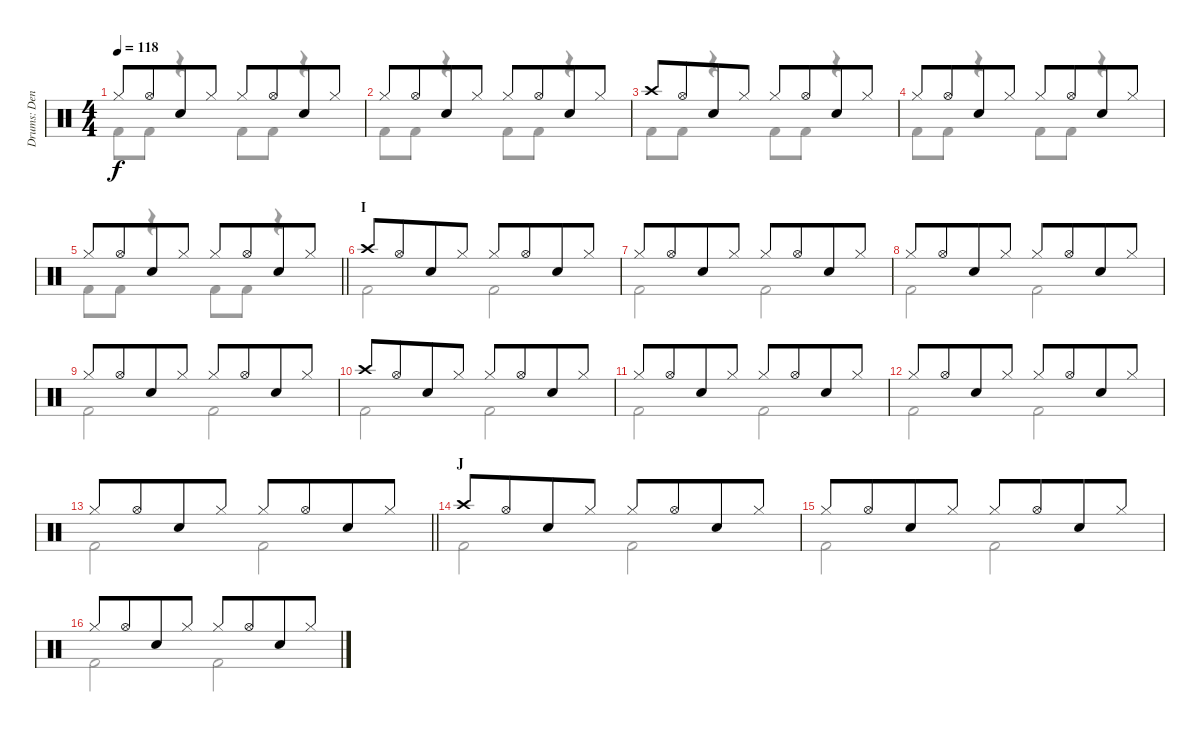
\track ("Drums: Denny" "Drums: Den") {instrument percussion}
\staff {score}
\articulation defaults
\voice
\ts (4 4)
\tempo 118
\clef neutral
\ks c "Hi-Hat (closed)".8{dy f} "Hi-Hat (open)".8{beam merge} "Snare (hit) 2".8 "Hi-Hat (closed)".8 "Hi-Hat (closed)".8 "Hi-Hat (open)".8{beam merge} "Snare (hit) 2".8 "Hi-Hat (closed)".8
|
"Hi-Hat (closed)".8 "Hi-Hat (open)".8{beam merge} "Snare (hit) 2".8 "Hi-Hat (closed)".8 "Hi-Hat (closed)".8 "Hi-Hat (open)".8{beam merge} "Snare (hit) 2".8 "Hi-Hat (closed)".8 |
"Crash high (hit)".8 "Hi-Hat (open)".8{beam merge} "Snare (hit) 2".8 "Hi-Hat (closed)".8 "Hi-Hat (closed)".8 "Hi-Hat (open)".8{beam merge} "Snare (hit) 2".8 "Hi-Hat (closed)".8 |
"Hi-Hat (closed)".8 "Hi-Hat (open)".8{beam merge} "Snare (hit) 2".8 "Hi-Hat (closed)".8 "Hi-Hat (closed)".8 "Hi-Hat (open)".8{beam merge} "Snare (hit) 2".8 "Hi-Hat (closed)".8 |
\barLineRight lightlight "Hi-Hat (closed)".8 "Hi-Hat (open)".8{beam merge} "Snare (hit) 2".8 "Hi-Hat (closed)".8 "Hi-Hat (closed)".8 "Hi-Hat (open)".8{beam merge} "Snare (hit) 2".8 "Hi-Hat (closed)".8
|
\section ("" "I")
"Crash high (hit)".8 "Hi-Hat (open)".8{beam merge} "Snare (hit) 2".8 "Hi-Hat (closed)".8 "Hi-Hat (closed)".8 "Hi-Hat (open)".8{beam merge} "Snare (hit) 2".8 "Hi-Hat (closed)".8 |
"Hi-Hat (closed)".8 "Hi-Hat (open)".8{beam merge} "Snare (hit) 2".8 "Hi-Hat (closed)".8 "Hi-Hat (closed)".8 "Hi-Hat (open)".8{beam merge} "Snare (hit) 2".8 "Hi-Hat (closed)".8 |
"Hi-Hat (closed)".8 "Hi-Hat (open)".8{beam merge} "Snare (hit) 2".8 "Hi-Hat (closed)".8 "Hi-Hat (closed)".8 "Hi-Hat (open)".8{beam merge} "Snare (hit) 2".8 "Hi-Hat (closed)".8 |
"Hi-Hat (closed)".8 "Hi-Hat (open)".8{beam merge} "Snare (hit) 2".8 "Hi-Hat (closed)".8 "Hi-Hat (closed)".8 "Hi-Hat (open)".8{beam merge} "Snare (hit) 2".8 "Hi-Hat (closed)".8 |
"Crash high (hit)".8 "Hi-Hat (open)".8{beam merge} "Snare (hit) 2".8 "Hi-Hat (closed)".8 "Hi-Hat (closed)".8 "Hi-Hat (open)".8{beam merge} "Snare (hit) 2".8 "Hi-Hat (closed)".8 |
"Hi-Hat (closed)".8 "Hi-Hat (open)".8{beam merge} "Snare (hit) 2".8 "Hi-Hat (closed)".8 "Hi-Hat (closed)".8 "Hi-Hat (open)".8{beam merge} "Snare (hit) 2".8 "Hi-Hat (closed)".8 |
"Hi-Hat (closed)".8 "Hi-Hat (open)".8{beam merge} "Snare (hit) 2".8 "Hi-Hat (closed)".8 "Hi-Hat (closed)".8 "Hi-Hat (open)".8{beam merge} "Snare (hit) 2".8 "Hi-Hat (closed)".8 |
\barLineRight lightlight "Hi-Hat (closed)".8 "Hi-Hat (open)".8{beam merge} "Snare (hit) 2".8 "Hi-Hat (closed)".8 "Hi-Hat (closed)".8 "Hi-Hat (open)".8{beam merge} "Snare (hit) 2".8 "Hi-Hat (closed)".8
|
\section ("" "J")
"Crash high (hit)".8 "Hi-Hat (open)".8{beam merge} "Snare (hit) 2".8 "Hi-Hat (closed)".8 "Hi-Hat (closed)".8 "Hi-Hat (open)".8{beam merge} "Snare (hit) 2".8 "Hi-Hat (closed)".8 |
"Hi-Hat (closed)".8 "Hi-Hat (open)".8{beam merge} "Snare (hit) 2".8 "Hi-Hat (closed)".8 "Hi-Hat (closed)".8 "Hi-Hat (open)".8{beam merge} "Snare (hit) 2".8 "Hi-Hat (closed)".8 |
"Hi-Hat (closed)".8 "Hi-Hat (open)".8{beam merge} "Snare (hit) 2".8 "Hi-Hat (closed)".8 "Hi-Hat (closed)".8 "Hi-Hat (open)".8{beam merge} "Snare (hit) 2".8 "Hi-Hat (closed)".8
\voice
\clef neutral
\ottava regular
\simile none
\ks c "Kick (hit) 2".8{dy f} "Kick (hit) 2".8
r.4 "Kick (hit) 2".8 "Kick (hit) 2".8 r.4 |
"Kick (hit) 2".8 "Kick (hit) 2".8 r.4 "Kick (hit) 2".8 "Kick (hit) 2".8 r.4 |
"Kick (hit) 2".8 "Kick (hit) 2".8 r.4 "Kick (hit) 2".8 "Kick (hit) 2".8 r.4 |
"Kick (hit) 2".8 "Kick (hit) 2".8 r.4 "Kick (hit) 2".8 "Kick (hit) 2".8 r.4 |
\barLineRight lightlight "Kick (hit) 2".8 "Kick (hit) 2".8
r.4 "Kick (hit) 2".8 "Kick (hit) 2".8 r.4 |
"Kick (hit) 2".2 "Kick (hit) 2".2 |
"Kick (hit) 2".2 "Kick (hit) 2".2 |
"Kick (hit) 2".2 "Kick (hit) 2".2 |
"Kick (hit) 2".2 "Kick (hit) 2".2 |
"Kick (hit) 2".2 "Kick (hit) 2".2 |
"Kick (hit) 2".2 "Kick (hit) 2".2 |
"Kick (hit) 2".2 "Kick (hit) 2".2 |
\barLineRight lightlight "Kick (hit) 2".2 "Kick (hit) 2".2
|
"Kick (hit) 2".2 "Kick (hit) 2".2 |
"Kick (hit) 2".2 "Kick (hit) 2".2 |
"Kick (hit) 2".2 "Kick (hit) 2".2
